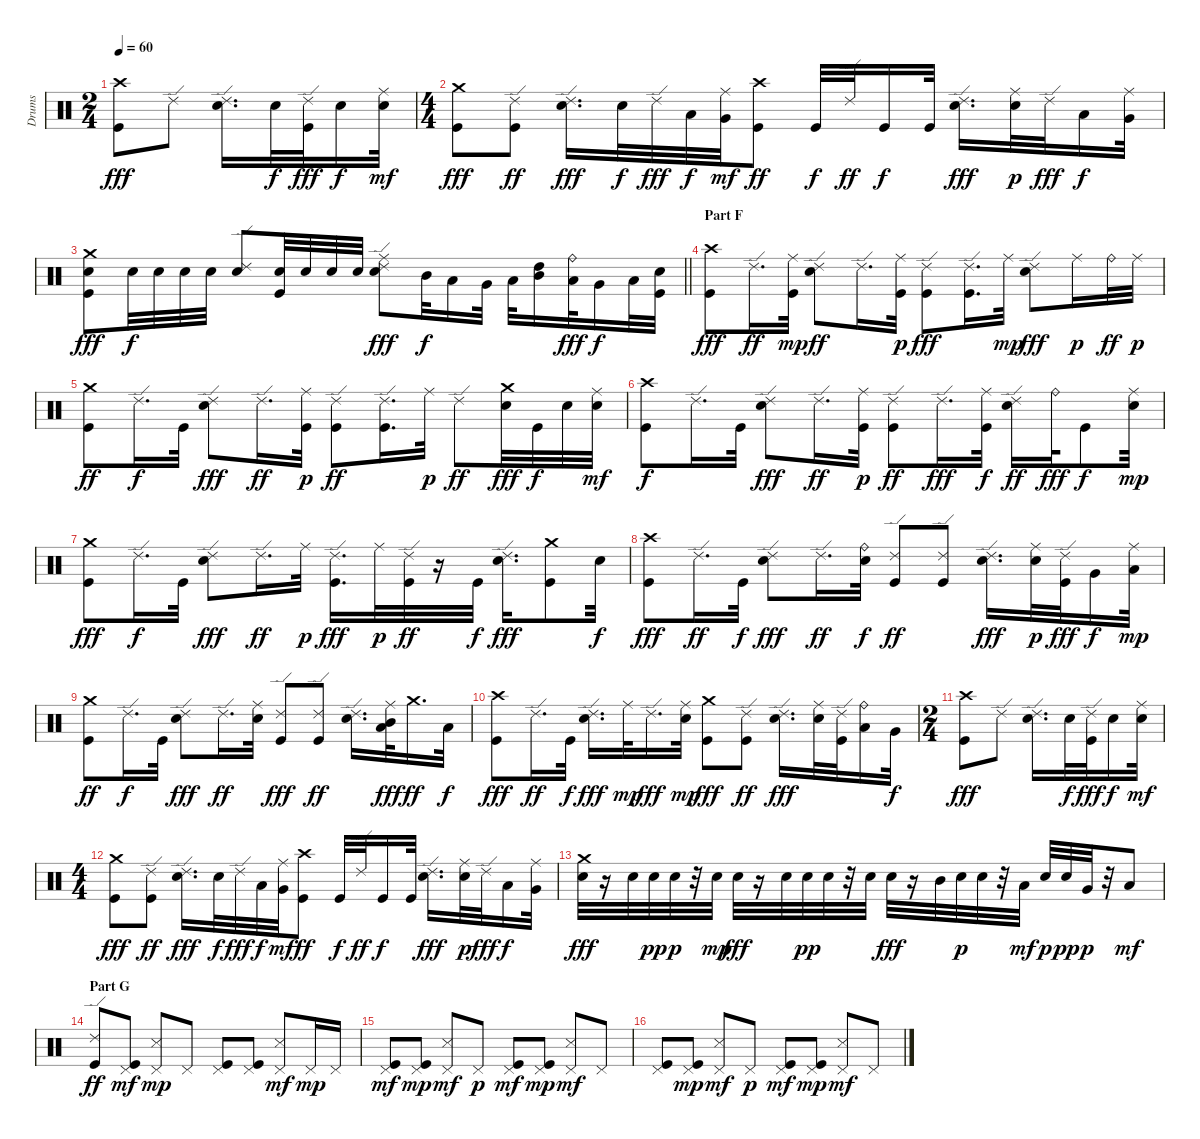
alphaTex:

\track ("Drums" "Drums") {instrument percussion}
\staff {score}
\articulation defaults
\ts (2 4)
\tempo 60
\clef neutral
\ks c
("Crash high (hit)" "Kick (hit)").8{dy fff} "Ride (edge) 2".8 ("Ride (edge) 2" "Electric Snare (hit)").16{d} "Electric Snare (hit)".32{dy f} ("Ride (edge) 2" "Kick (hit)").32{dy fff} "Electric Snare (hit)".16{dy f} ("Ride (middle)" "Electric Snare (hit)").32{dy mf} |
\ts (4 4)
("Crash medium (hit)" "Kick (hit)").8{dy fff} ("Ride (edge) 2" "Kick (hit)").8{dy ff} ("Ride (edge) 2" "Electric Snare (hit)").16{d dy fff} "Electric Snare (hit)".32{dy f} "Ride (edge) 2".32{dy fff} "Low Tom (hit)".32{dy f} ("Ride (middle)" "Very Low Tom (hit)").32{dy mf} ("Crash high (hit)" "Kick (hit)").8{dy ff} "Kick (hit)".32{dy f} "Ride (edge) 2".32{dy ff} "Kick (hit)".16{dy f} "Kick (hit)".32 ("Ride (edge) 2" "Electric Snare (hit)").16{d dy fff} ("Ride (middle)" "Electric Snare (hit)").32{dy p} "Ride (edge) 2".32{dy fff} "Low Tom (hit)".16{dy f} ("Ride (middle)" "Very Low Tom (hit)").32 |
\barLineRight lightlight
("Crash medium (hit)" "Electric Snare (hit)" "Kick (hit)").8{dy fff} "Electric Snare (hit)".32{dy f} "Electric Snare (hit)".32 "Electric Snare (hit)".32 "Electric Snare (hit)".32 ("Ride (edge) 2" "Electric Snare (hit)").8 ("Electric Snare (hit)" "Kick (hit)").32 "Electric Snare (hit)".32 "Electric Snare (hit)".32 "Electric Snare (hit)".32 ("Ride (edge) 2" "Ride (middle)" "Electric Snare (hit)").8{dy fff} "Mid Tom (hit)".32{dy f} "Low Tom (hit)".16 "Very Low Tom (hit)".32 "Low Floor Tom (hit)".32 ("High Tom (hit)" "Mid Tom (hit)").16 ("Ride (bell)" "Low Tom (hit)").32{dy fff} "Very Low Tom (hit)".16{dy f} "Low Floor Tom (hit)".32 ("Electric Snare (hit)" "Kick (hit)").32 |
\section ("" "Part F")
("Crash high (hit)" "Kick (hit)").8{dy fff volume 13} "Ride (edge) 2".16{d dy ff} ("Ride (middle)" "Kick (hit)").32{dy mp} ("Ride (edge) 2" "Electric Snare (hit)").8{dy ff} "Ride (edge) 2".16{d} ("Ride (middle)" "Kick (hit)").32{dy p} ("Ride (edge) 2" "Kick (hit)").8{dy fff} ("Ride (edge) 2" "Kick (hit)").16{d} "Ride (middle)".32{dy mp} ("Ride (edge) 2" "Electric Snare (hit)").8{dy fff} "Ride (middle)".16{dy p} "Ride (bell)".32{dy ff} "Ride (middle)".32{dy p} |
("Crash medium (hit)" "Kick (hit)").8{dy ff} "Ride (edge) 2".16{d dy f} "Kick (hit)".32 ("Ride (edge) 2" "Electric Snare (hit)").8{dy fff} "Ride (edge) 2".16{d dy ff} ("Ride (middle)" "Kick (hit)").32{dy p} ("Ride (edge) 2" "Kick (hit)").8{dy ff} ("Ride (edge) 2" "Kick (hit)").16{d} "Ride (middle)".32{dy p} "Ride (edge) 2".8{dy ff} ("Crash medium (hit)" "Electric Snare (hit)").32{dy fff} "Kick (hit)".32{dy f} "Electric Snare (hit)".32 ("Ride (middle)" "Electric Snare (hit)").32{dy mf} |
("Crash high (hit)" "Kick (hit)").8{dy f} "Ride (edge) 2".16{d} "Kick (hit)".32 ("Ride (edge) 2" "Electric Snare (hit)").8{dy fff} "Ride (edge) 2".16{d dy ff} ("Ride (middle)" "Kick (hit)").32{dy p} ("Ride (edge) 2" "Kick (hit)").8{dy ff} "Ride (edge) 2".16{d dy fff} ("Ride (middle)" "Kick (hit)").32{dy f} ("Ride (edge) 2" "Electric Snare (hit)").16{dy ff} "Ride (bell)".32{dy fff} "Kick (hit)".8{dy f} ("Ride (middle)" "Electric Snare (hit)").32{dy mp} |
("Crash medium (hit)" "Kick (hit)").8{dy fff} "Ride (edge) 2".16{d dy f} "Kick (hit)".32 ("Ride (edge) 2" "Electric Snare (hit)").8{dy fff} "Ride (edge) 2".16{d dy ff} "Ride (middle)".32{dy p} ("Ride (edge) 2" "Kick (hit)").16{d dy fff} "Ride (middle)".32{dy p} ("Ride (edge) 2" "Kick (hit)").32{dy ff} r.16 "Kick (hit)".32{dy f} ("Ride (edge) 2" "Electric Snare (hit)").16{d dy fff} ("Crash medium (hit)" "Kick (hit)").8 "Electric Snare (hit)".32{dy f} |
("Crash high (hit)" "Kick (hit)").8{dy fff} "Ride (edge) 2".16{d dy ff} "Kick (hit)".32{dy f} ("Ride (edge) 2" "Electric Snare (hit)").8{dy fff} "Ride (edge) 2".16{d dy ff} ("Ride (bell)" "Electric Snare (hit)").32{dy f} ("Ride (edge) 2" "Kick (hit)").8{dy ff} ("Ride (edge) 2" "Kick (hit)").8 ("Ride (edge) 2" "Electric Snare (hit)").16{d dy fff} ("Ride (middle)" "Electric Snare (hit)").32{dy p} ("Ride (edge) 2" "Kick (hit)").32{dy fff} "Very Low Tom (hit)".16{dy f} ("Ride (middle)" "Low Floor Tom (hit)").32{dy mp} |
("Crash medium (hit)" "Kick (hit)").8{dy ff} "Ride (edge) 2".16{d dy f} "Kick (hit)".32 ("Ride (edge) 2" "Electric Snare (hit)").8{dy fff} "Ride (edge) 2".16{d dy ff} ("Ride (middle)" "Electric Snare (hit)").32 ("Ride (edge) 2" "Kick (hit)").8{dy fff} ("Ride (edge) 2" "Kick (hit)").8{dy ff} ("Ride (edge) 2" "Electric Snare (hit)").16{d} ("Ride (middle)" "Mid Tom (hit)" "Low Tom (hit)").32{dy fff} "Crash medium (hit)".16{d dy ff} "Low Floor Tom (hit)".32{dy f} |
("Crash high (hit)" "Kick (hit)").8{dy fff} "Ride (edge) 2".16{d dy ff} "Kick (hit)".32{dy f} ("Ride (edge) 2" "Electric Snare (hit)").16{d dy fff} "Ride (middle)".32{dy mp} "Ride (edge) 2".16{d dy fff} ("Ride (middle)" "Electric Snare (hit)").32{dy mp} ("Crash medium (hit)" "Kick (hit)").8{dy fff} ("Ride (edge) 2" "Kick (hit)").8{dy ff} ("Ride (edge) 2" "Electric Snare (hit)").16{d dy fff} ("Ride (middle)" "Electric Snare (hit)").32 ("Ride (edge) 2" "Kick (hit)").32 ("Ride (bell)" "Low Tom (hit)").16 "Very Low Tom (hit)".32{dy f} |
\ts (2 4)
("Crash high (hit)" "Kick (hit)").8{dy fff} "Ride (edge) 2".8 ("Ride (edge) 2" "Electric Snare (hit)").16{d} "Electric Snare (hit)".32{dy f} ("Ride (edge) 2" "Kick (hit)").32{dy fff} "Electric Snare (hit)".16{dy f} ("Ride (middle)" "Electric Snare (hit)").32{dy mf} |
\ts (4 4)
("Crash medium (hit)" "Kick (hit)").8{dy fff} ("Ride (edge) 2" "Kick (hit)").8{dy ff} ("Ride (edge) 2" "Electric Snare (hit)").16{d dy fff} "Electric Snare (hit)".32{dy f} "Ride (edge) 2".32{dy fff} "Low Tom (hit)".32{dy f} ("Ride (middle)" "Very Low Tom (hit)").32{dy mf} ("Crash high (hit)" "Kick (hit)").8{dy ff} "Kick (hit)".32{dy f} "Ride (edge) 2".32{dy ff} "Kick (hit)".16{dy f} "Kick (hit)".32 ("Ride (edge) 2" "Electric Snare (hit)").16{d dy fff} ("Ride (middle)" "Electric Snare (hit)").32{dy p} "Ride (edge) 2".32{dy fff} "Low Tom (hit)".16{dy f} ("Ride (middle)" "Very Low Tom (hit)").32 |
("Crash medium (hit)" "Electric Snare (hit)").32{dy fff} r.16 "Electric Snare (hit)".32 "Electric Snare (hit)".32{dy pp} "Electric Snare (hit)".32{dy p} r.32 "Electric Snare (hit)".32{dy mp} "Electric Snare (hit)".32{dy fff} r.16 "Electric Snare (hit)".32 "Electric Snare (hit)".32{dy pp} "Electric Snare (hit)".32 r.32 "Electric Snare (hit)".32 "Electric Snare (hit)".32{dy fff} r.16 "Mid Tom (hit)".32 "Electric Snare (hit)".32{dy p} "Electric Snare (hit)".32 r.32 "Low Tom (hit)".32{dy mf} "Electric Snare (hit)".32{dy p} "Electric Snare (hit)".32{dy pp} "Very Low Tom (hit)".32{dy p} r.32 "Low Floor Tom (hit)".8{dy mf} |
\section ("" "Part G")
("Ride (edge) 2" "Kick (hit)").8{dy ff volume 10} ("Pedal Hi-Hat (hit)" "Kick (hit)").8{dy mf} ("Pedal Hi-Hat (hit)" "Snare (side stick) 3").8{dy mp} "Pedal Hi-Hat (hit)".8 ("Pedal Hi-Hat (hit)" "Kick (hit)").8 ("Pedal Hi-Hat (hit)" "Kick (hit)").8 ("Pedal Hi-Hat (hit)" "Snare (side stick) 3").8{dy mf} "Pedal Hi-Hat (hit)".16{dy mp} "Pedal Hi-Hat (hit)".16 |
("Pedal Hi-Hat (hit)" "Kick (hit)").8{dy mf} ("Pedal Hi-Hat (hit)" "Kick (hit)").8{dy mp} ("Pedal Hi-Hat (hit)" "Snare (side stick) 3").8{dy mf} "Pedal Hi-Hat (hit)".8{dy p} ("Pedal Hi-Hat (hit)" "Kick (hit)").8{dy mf} ("Pedal Hi-Hat (hit)" "Kick (hit)").8{dy mp} ("Pedal Hi-Hat (hit)" "Snare (side stick) 3").8{dy mf} "Pedal Hi-Hat (hit)".8 |
("Pedal Hi-Hat (hit)" "Kick (hit)").8 ("Pedal Hi-Hat (hit)" "Kick (hit)").8{dy mp} ("Pedal Hi-Hat (hit)" "Snare (side stick) 3").8{dy mf} "Pedal Hi-Hat (hit)".8{dy p} ("Pedal Hi-Hat (hit)" "Kick (hit)").8{dy mf} ("Pedal Hi-Hat (hit)" "Kick (hit)").8{dy mp} ("Pedal Hi-Hat (hit)" "Snare (side stick) 3").8{dy mf} "Pedal Hi-Hat (hit)".8
